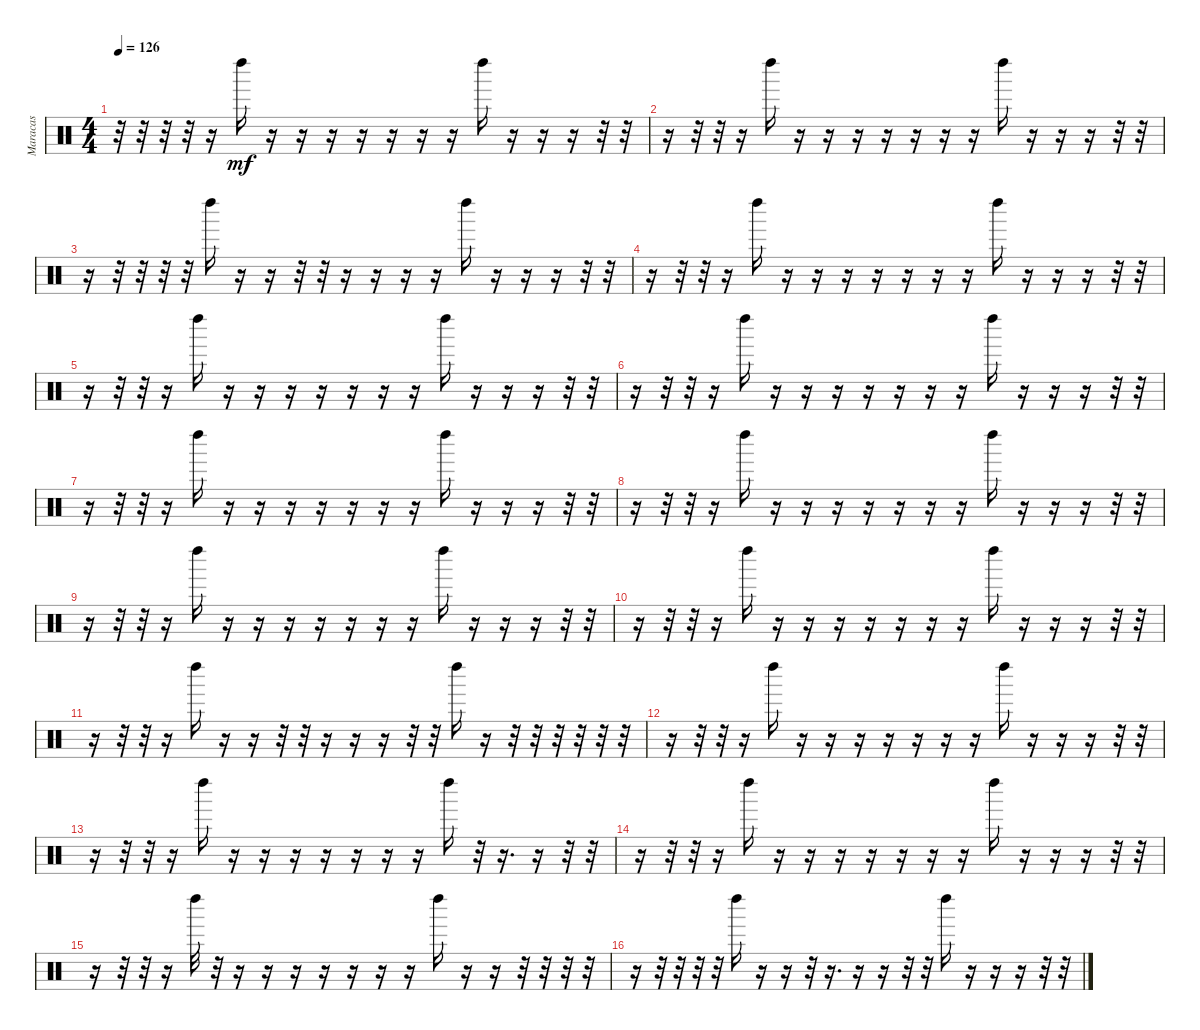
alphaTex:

\track ("Maracas" "Maracas") {instrument percussion}
\staff {score}
\articulation defaults
\ts (4 4)
\tempo 126
\clef neutral
\ks c
r.32{dy mf} r.32 r.32 r.32 r.16 "Left Maraca (hit)".16 r.16 r.16 r.16 r.16 r.16 r.16 r.16 "Left Maraca (hit)".16 r.16 r.16 r.16 r.32 r.32 |
r.16 r.32 r.32 r.16 "Left Maraca (hit)".16 r.16 r.16 r.16 r.16 r.16 r.16 r.16 "Left Maraca (hit)".16 r.16 r.16 r.16 r.32 r.32 |
r.16 r.32 r.32 r.32 r.32 "Left Maraca (hit)".16 r.16 r.16 r.32 r.32 r.16 r.16 r.16 r.16 "Left Maraca (hit)".16 r.16 r.16 r.16 r.32 r.32 |
r.16 r.32 r.32 r.16 "Left Maraca (hit)".16 r.16 r.16 r.16 r.16 r.16 r.16 r.16 "Left Maraca (hit)".16 r.16 r.16 r.16 r.32 r.32 |
r.16 r.32 r.32 r.16 "Left Maraca (hit)".16 r.16 r.16 r.16 r.16 r.16 r.16 r.16 "Left Maraca (hit)".16 r.16 r.16 r.16 r.32 r.32 |
r.16 r.32 r.32 r.16 "Left Maraca (hit)".16 r.16 r.16 r.16 r.16 r.16 r.16 r.16 "Left Maraca (hit)".16 r.16 r.16 r.16 r.32 r.32 |
r.16 r.32 r.32 r.16 "Left Maraca (hit)".16 r.16 r.16 r.16 r.16 r.16 r.16 r.16 "Left Maraca (hit)".16 r.16 r.16 r.16 r.32 r.32 |
r.16 r.32 r.32 r.16 "Left Maraca (hit)".16 r.16 r.16 r.16 r.16 r.16 r.16 r.16 "Left Maraca (hit)".16 r.16 r.16 r.16 r.32 r.32 |
r.16 r.32 r.32 r.16 "Left Maraca (hit)".16 r.16 r.16 r.16 r.16 r.16 r.16 r.16 "Left Maraca (hit)".16 r.16 r.16 r.16 r.32 r.32 |
r.16 r.32 r.32 r.16 "Left Maraca (hit)".16 r.16 r.16 r.16 r.16 r.16 r.16 r.16 "Left Maraca (hit)".16 r.16 r.16 r.16 r.32 r.32 |
r.16 r.32 r.32 r.16 "Left Maraca (hit)".16 r.16 r.16 r.32 r.32 r.16 r.16 r.16 r.32 r.32 "Left Maraca (hit)".16 r.16 r.32 r.32 r.32 r.32 r.32 r.32 |
r.16 r.32 r.32 r.16 "Left Maraca (hit)".16 r.16 r.16 r.16 r.16 r.16 r.16 r.16 "Left Maraca (hit)".16 r.16 r.16 r.16 r.32 r.32 |
r.16 r.32 r.32 r.16 "Left Maraca (hit)".16 r.16 r.16 r.16 r.16 r.16 r.16 r.16 "Left Maraca (hit)".16 r.32 r.16{d} r.16 r.32 r.32 |
r.16 r.32 r.32 r.16 "Left Maraca (hit)".16 r.16 r.16 r.16 r.16 r.16 r.16 r.16 "Left Maraca (hit)".16 r.16 r.16 r.16 r.32 r.32 |
r.16 r.32 r.32 r.16 "Left Maraca (hit)".32 r.32 r.16 r.16 r.16 r.16 r.16 r.16 r.16 "Left Maraca (hit)".16 r.16 r.16 r.32 r.32 r.32 r.32 |
r.16 r.32 r.32 r.32 r.32 "Left Maraca (hit)".16 r.16 r.16 r.32 r.16{d} r.16 r.16 r.32 r.32 "Left Maraca (hit)".16 r.16 r.16 r.16 r.32 r.32
